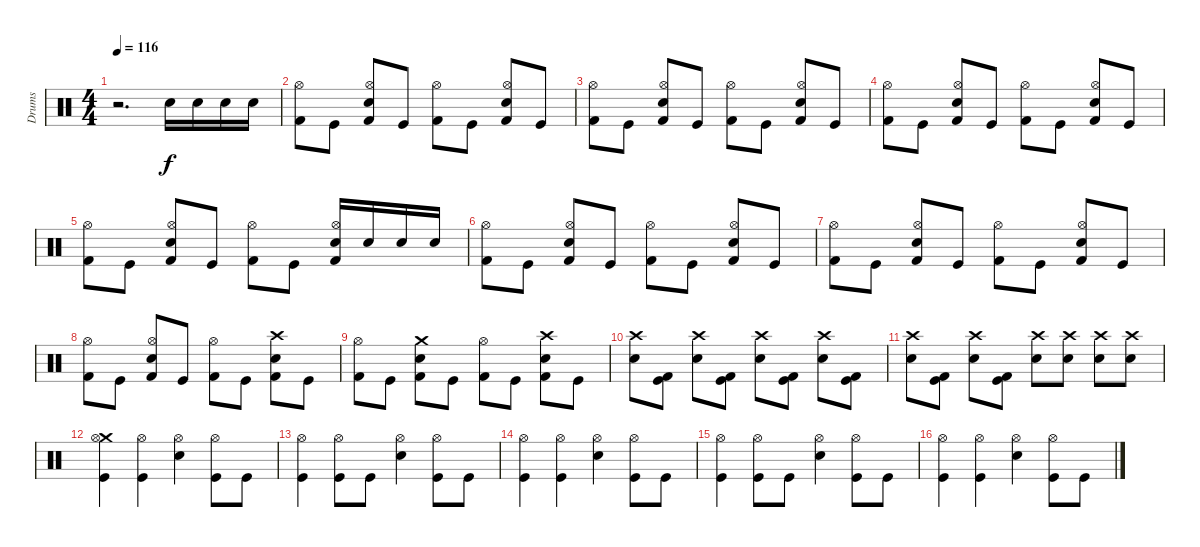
\track ("Drums" "Drums") {instrument percussion}
\staff {score}
\articulation defaults
\ts (4 4)
\tempo 116
\clef neutral
\ks c
r.2{d dy f} "Snare (hit) 2".16 "Snare (hit) 2".16 "Snare (hit) 2".16 "Snare (hit) 2".16 |
("Hi-Hat (open)" "Kick (hit) 2").8 "Kick (hit)".8 ("Hi-Hat (open)" "Snare (hit) 2" "Kick (hit) 2").8 "Kick (hit)".8 ("Hi-Hat (open)" "Kick (hit) 2").8 "Kick (hit)".8 ("Hi-Hat (open)" "Snare (hit) 2" "Kick (hit) 2").8 "Kick (hit)".8 |
("Hi-Hat (open)" "Kick (hit) 2").8 "Kick (hit)".8 ("Hi-Hat (open)" "Snare (hit) 2" "Kick (hit) 2").8 "Kick (hit)".8 ("Hi-Hat (open)" "Kick (hit) 2").8 "Kick (hit)".8 ("Hi-Hat (open)" "Snare (hit) 2" "Kick (hit) 2").8 "Kick (hit)".8 |
("Hi-Hat (open)" "Kick (hit) 2").8 "Kick (hit)".8 ("Hi-Hat (open)" "Snare (hit) 2" "Kick (hit) 2").8 "Kick (hit)".8 ("Hi-Hat (open)" "Kick (hit) 2").8 "Kick (hit)".8 ("Hi-Hat (open)" "Snare (hit) 2" "Kick (hit) 2").8 "Kick (hit)".8 |
("Hi-Hat (open)" "Kick (hit) 2").8 "Kick (hit)".8 ("Hi-Hat (open)" "Snare (hit) 2" "Kick (hit) 2").8 "Kick (hit)".8 ("Hi-Hat (open)" "Kick (hit) 2").8 "Kick (hit)".8 ("Hi-Hat (open)" "Snare (hit) 2" "Kick (hit) 2").16 "Snare (hit) 2".16 "Snare (hit) 2".16 "Snare (hit) 2".16 |
("Hi-Hat (open)" "Kick (hit) 2").8 "Kick (hit)".8 ("Hi-Hat (open)" "Snare (hit) 2" "Kick (hit) 2").8 "Kick (hit)".8 ("Hi-Hat (open)" "Kick (hit) 2").8 "Kick (hit)".8 ("Hi-Hat (open)" "Snare (hit) 2" "Kick (hit) 2").8 "Kick (hit)".8 |
("Hi-Hat (open)" "Kick (hit) 2").8 "Kick (hit)".8 ("Hi-Hat (open)" "Snare (hit) 2" "Kick (hit) 2").8 "Kick (hit)".8 ("Hi-Hat (open)" "Kick (hit) 2").8 "Kick (hit)".8 ("Hi-Hat (open)" "Snare (hit) 2" "Kick (hit) 2").8 "Kick (hit)".8 |
("Hi-Hat (open)" "Kick (hit) 2").8 "Kick (hit)".8 ("Hi-Hat (open)" "Snare (hit) 2" "Kick (hit) 2").8 "Kick (hit)".8 ("Hi-Hat (open)" "Kick (hit) 2").8 "Kick (hit)".8 ("Crash high (hit)" "Snare (hit) 2" "Kick (hit) 2").8 "Kick (hit)".8 |
("Hi-Hat (open)" "Kick (hit) 2").8 "Kick (hit)".8 ("Crash medium (hit)" "Snare (hit) 2" "Kick (hit) 2").8 "Kick (hit)".8 ("Hi-Hat (open)" "Kick (hit) 2").8 "Kick (hit)".8 ("Crash high (hit)" "Snare (hit) 2" "Kick (hit) 2").8 "Kick (hit)".8 |
("Crash high (hit)" "Snare (hit) 2").8 ("Kick (hit) 2" "Kick (hit)").8 ("Crash high (hit)" "Snare (hit) 2").8 ("Kick (hit) 2" "Kick (hit)").8 ("Crash high (hit)" "Snare (hit) 2").8 ("Kick (hit) 2" "Kick (hit)").8 ("Crash high (hit)" "Snare (hit) 2").8 ("Kick (hit) 2" "Kick (hit)").8 |
("Crash high (hit)" "Snare (hit) 2").8 ("Kick (hit) 2" "Kick (hit)").8 ("Crash high (hit)" "Snare (hit) 2").8 ("Kick (hit) 2" "Kick (hit)").8 ("Crash high (hit)" "Snare (hit) 2").8 ("Crash high (hit)" "Snare (hit) 2").8 ("Crash high (hit)" "Snare (hit) 2").8 ("Crash high (hit)" "Snare (hit) 2").8 |
("Crash medium (hit)" "Hi-Hat (open)" "Kick (hit)").4 ("Hi-Hat (open)" "Kick (hit)").4 ("Hi-Hat (open)" "Snare (hit) 2").4 ("Hi-Hat (open)" "Kick (hit)").8 "Kick (hit)".8 |
("Hi-Hat (open)" "Kick (hit)").4 ("Hi-Hat (open)" "Kick (hit)").8 "Kick (hit)".8 ("Hi-Hat (open)" "Snare (hit) 2").4 ("Hi-Hat (open)" "Kick (hit)").8 "Kick (hit)".8 |
("Hi-Hat (open)" "Kick (hit)").4 ("Hi-Hat (open)" "Kick (hit)").4 ("Hi-Hat (open)" "Snare (hit) 2").4 ("Hi-Hat (open)" "Kick (hit)").8 "Kick (hit)".8 |
("Hi-Hat (open)" "Kick (hit)").4 ("Hi-Hat (open)" "Kick (hit)").8 "Kick (hit)".8 ("Hi-Hat (open)" "Snare (hit) 2").4 ("Hi-Hat (open)" "Kick (hit)").8 "Kick (hit)".8 |
("Hi-Hat (open)" "Kick (hit)").4 ("Hi-Hat (open)" "Kick (hit)").4 ("Hi-Hat (open)" "Snare (hit) 2").4 ("Hi-Hat (open)" "Kick (hit)").8 "Kick (hit)".8
